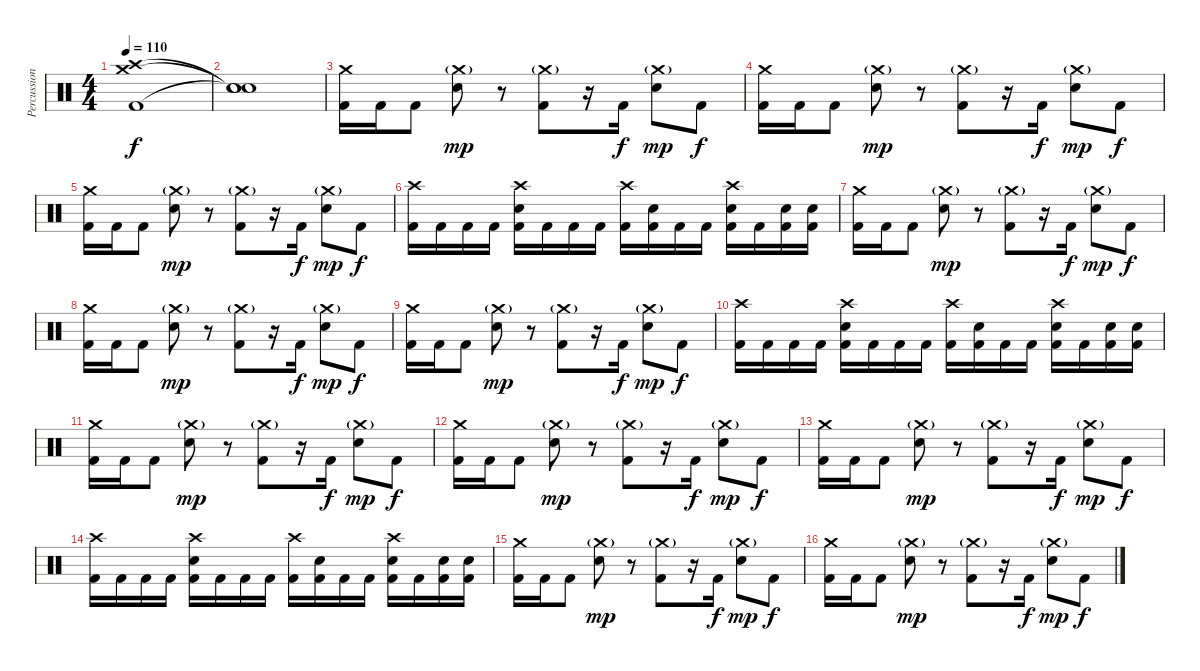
\track ("Percussion" "Percussion") {instrument percussion}
\staff {score}
\articulation defaults
\ts (4 4)
\tempo 110
\clef neutral
\ks c
("Crash high (hit)" "Crash medium (hit)" "Kick (hit) 2").1{dy f} |
("Snare (hit)"{t} "Snare (hit)"{t} "Snare (hit)"{t}).1 |
("Crash medium (hit)" "Kick (hit) 2").16 "Kick (hit) 2".16 "Kick (hit) 2".8 ("Crash medium (hit)"{g} "Electric Snare (hit)").8{dy mp} r.8 ("Crash medium (hit)"{g} "Kick (hit) 2").8 r.16 "Kick (hit) 2".16{dy f} ("Crash medium (hit)"{g} "Electric Snare (hit)").8{dy mp} "Kick (hit) 2".8{dy f} |
("Crash medium (hit)" "Kick (hit) 2").16 "Kick (hit) 2".16 "Kick (hit) 2".8 ("Crash medium (hit)"{g} "Electric Snare (hit)").8{dy mp} r.8 ("Crash medium (hit)"{g} "Kick (hit) 2").8 r.16 "Kick (hit) 2".16{dy f} ("Crash medium (hit)"{g} "Electric Snare (hit)").8{dy mp} "Kick (hit) 2".8{dy f} |
("Crash medium (hit)" "Kick (hit) 2").16 "Kick (hit) 2".16 "Kick (hit) 2".8 ("Crash medium (hit)"{g} "Electric Snare (hit)").8{dy mp} r.8 ("Crash medium (hit)"{g} "Kick (hit) 2").8 r.16 "Kick (hit) 2".16{dy f} ("Crash medium (hit)"{g} "Electric Snare (hit)").8{dy mp} "Kick (hit) 2".8{dy f} |
("Crash high (hit)" "Kick (hit) 2").16 "Kick (hit) 2".16 "Kick (hit) 2".16 "Kick (hit) 2".16 ("Crash high (hit)" "Electric Snare (hit)" "Kick (hit) 2").16 "Kick (hit) 2".16 "Kick (hit) 2".16 "Kick (hit) 2".16 ("Crash high (hit)" "Kick (hit) 2").16 ("Electric Snare (hit)" "Kick (hit) 2").16 "Kick (hit) 2".16 "Kick (hit) 2".16 ("Crash high (hit)" "Electric Snare (hit)" "Kick (hit) 2").16 "Kick (hit) 2".16 ("Electric Snare (hit)" "Kick (hit) 2").16 ("Electric Snare (hit)" "Kick (hit) 2").16 |
("Crash medium (hit)" "Kick (hit) 2").16 "Kick (hit) 2".16 "Kick (hit) 2".8 ("Crash medium (hit)"{g} "Electric Snare (hit)").8{dy mp} r.8 ("Crash medium (hit)"{g} "Kick (hit) 2").8 r.16 "Kick (hit) 2".16{dy f} ("Crash medium (hit)"{g} "Electric Snare (hit)").8{dy mp} "Kick (hit) 2".8{dy f} |
("Crash medium (hit)" "Kick (hit) 2").16 "Kick (hit) 2".16 "Kick (hit) 2".8 ("Crash medium (hit)"{g} "Electric Snare (hit)").8{dy mp} r.8 ("Crash medium (hit)"{g} "Kick (hit) 2").8 r.16 "Kick (hit) 2".16{dy f} ("Crash medium (hit)"{g} "Electric Snare (hit)").8{dy mp} "Kick (hit) 2".8{dy f} |
("Crash medium (hit)" "Kick (hit) 2").16 "Kick (hit) 2".16 "Kick (hit) 2".8 ("Crash medium (hit)"{g} "Electric Snare (hit)").8{dy mp} r.8 ("Crash medium (hit)"{g} "Kick (hit) 2").8 r.16 "Kick (hit) 2".16{dy f} ("Crash medium (hit)"{g} "Electric Snare (hit)").8{dy mp} "Kick (hit) 2".8{dy f} |
("Crash high (hit)" "Kick (hit) 2").16 "Kick (hit) 2".16 "Kick (hit) 2".16 "Kick (hit) 2".16 ("Crash high (hit)" "Electric Snare (hit)" "Kick (hit) 2").16 "Kick (hit) 2".16 "Kick (hit) 2".16 "Kick (hit) 2".16 ("Crash high (hit)" "Kick (hit) 2").16 ("Electric Snare (hit)" "Kick (hit) 2").16 "Kick (hit) 2".16 "Kick (hit) 2".16 ("Crash high (hit)" "Electric Snare (hit)" "Kick (hit) 2").16 "Kick (hit) 2".16 ("Electric Snare (hit)" "Kick (hit) 2").16 ("Electric Snare (hit)" "Kick (hit) 2").16 |
("Crash medium (hit)" "Kick (hit) 2").16 "Kick (hit) 2".16 "Kick (hit) 2".8 ("Crash medium (hit)"{g} "Electric Snare (hit)").8{dy mp} r.8 ("Crash medium (hit)"{g} "Kick (hit) 2").8 r.16 "Kick (hit) 2".16{dy f} ("Crash medium (hit)"{g} "Electric Snare (hit)").8{dy mp} "Kick (hit) 2".8{dy f} |
("Crash medium (hit)" "Kick (hit) 2").16 "Kick (hit) 2".16 "Kick (hit) 2".8 ("Crash medium (hit)"{g} "Electric Snare (hit)").8{dy mp} r.8 ("Crash medium (hit)"{g} "Kick (hit) 2").8 r.16 "Kick (hit) 2".16{dy f} ("Crash medium (hit)"{g} "Electric Snare (hit)").8{dy mp} "Kick (hit) 2".8{dy f} |
("Crash medium (hit)" "Kick (hit) 2").16 "Kick (hit) 2".16 "Kick (hit) 2".8 ("Crash medium (hit)"{g} "Electric Snare (hit)").8{dy mp} r.8 ("Crash medium (hit)"{g} "Kick (hit) 2").8 r.16 "Kick (hit) 2".16{dy f} ("Crash medium (hit)"{g} "Electric Snare (hit)").8{dy mp} "Kick (hit) 2".8{dy f} |
("Crash high (hit)" "Kick (hit) 2").16 "Kick (hit) 2".16 "Kick (hit) 2".16 "Kick (hit) 2".16 ("Crash high (hit)" "Electric Snare (hit)" "Kick (hit) 2").16 "Kick (hit) 2".16 "Kick (hit) 2".16 "Kick (hit) 2".16 ("Crash high (hit)" "Kick (hit) 2").16 ("Electric Snare (hit)" "Kick (hit) 2").16 "Kick (hit) 2".16 "Kick (hit) 2".16 ("Crash high (hit)" "Electric Snare (hit)" "Kick (hit) 2").16 "Kick (hit) 2".16 ("Electric Snare (hit)" "Kick (hit) 2").16 ("Electric Snare (hit)" "Kick (hit) 2").16 |
("Crash medium (hit)" "Kick (hit) 2").16 "Kick (hit) 2".16 "Kick (hit) 2".8 ("Crash medium (hit)"{g} "Electric Snare (hit)").8{dy mp} r.8 ("Crash medium (hit)"{g} "Kick (hit) 2").8 r.16 "Kick (hit) 2".16{dy f} ("Crash medium (hit)"{g} "Electric Snare (hit)").8{dy mp} "Kick (hit) 2".8{dy f} |
("Crash medium (hit)" "Kick (hit) 2").16 "Kick (hit) 2".16 "Kick (hit) 2".8 ("Crash medium (hit)"{g} "Electric Snare (hit)").8{dy mp} r.8 ("Crash medium (hit)"{g} "Kick (hit) 2").8 r.16 "Kick (hit) 2".16{dy f} ("Crash medium (hit)"{g} "Electric Snare (hit)").8{dy mp} "Kick (hit) 2".8{dy f}
